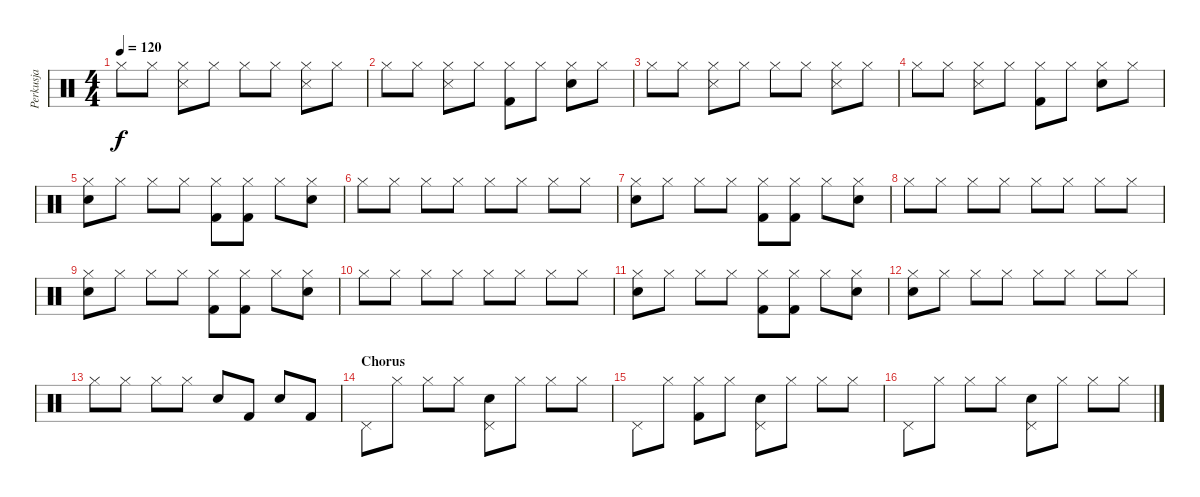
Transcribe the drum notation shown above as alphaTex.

\track ("Perkusja" "Perkusja") {instrument percussion}
\staff {score}
\articulation defaults
\ts (4 4)
\tempo 120
\clef neutral
\ks c "Hi-Hat (closed)".8{dy f} "Hi-Hat (closed)".8
("Hi-Hat (closed)" "Snare (side stick) 3").8 "Hi-Hat (closed)".8 "Hi-Hat (closed)".8 "Hi-Hat (closed)".8 ("Hi-Hat (closed)" "Snare (side stick) 3").8 "Hi-Hat (closed)".8 |
"Hi-Hat (closed)".8 "Hi-Hat (closed)".8 ("Hi-Hat (closed)" "Snare (side stick) 3").8 "Hi-Hat (closed)".8 ("Hi-Hat (closed)" "Kick (hit) 2").8 "Hi-Hat (closed)".8 ("Hi-Hat (closed)" "Snare (hit) 2").8 "Hi-Hat (closed)".8 |
"Hi-Hat (closed)".8 "Hi-Hat (closed)".8 ("Hi-Hat (closed)" "Snare (side stick) 3").8 "Hi-Hat (closed)".8 "Hi-Hat (closed)".8 "Hi-Hat (closed)".8 ("Hi-Hat (closed)" "Snare (side stick) 3").8 "Hi-Hat (closed)".8 |
"Hi-Hat (closed)".8 "Hi-Hat (closed)".8 ("Hi-Hat (closed)" "Snare (side stick) 3").8 "Hi-Hat (closed)".8 ("Hi-Hat (closed)" "Kick (hit) 2").8 "Hi-Hat (closed)".8 ("Hi-Hat (closed)" "Snare (hit) 2").8 "Hi-Hat (closed)".8 |
("Snare (hit) 2" "Hi-Hat (closed)").8 "Hi-Hat (closed)".8 "Hi-Hat (closed)".8 "Hi-Hat (closed)".8 ("Kick (hit) 2" "Hi-Hat (closed)").8 ("Kick (hit) 2" "Hi-Hat (closed)").8 "Hi-Hat (closed)".8 ("Snare (hit) 2" "Hi-Hat (closed)").8 |
"Hi-Hat (closed)".8 "Hi-Hat (closed)".8 "Hi-Hat (closed)".8 "Hi-Hat (closed)".8 "Hi-Hat (closed)".8 "Hi-Hat (closed)".8 "Hi-Hat (closed)".8 "Hi-Hat (closed)".8 |
("Snare (hit) 2" "Hi-Hat (closed)").8 "Hi-Hat (closed)".8 "Hi-Hat (closed)".8 "Hi-Hat (closed)".8 ("Kick (hit) 2" "Hi-Hat (closed)").8 ("Kick (hit) 2" "Hi-Hat (closed)").8 "Hi-Hat (closed)".8 ("Snare (hit) 2" "Hi-Hat (closed)").8 |
"Hi-Hat (closed)".8 "Hi-Hat (closed)".8 "Hi-Hat (closed)".8 "Hi-Hat (closed)".8 "Hi-Hat (closed)".8 "Hi-Hat (closed)".8 "Hi-Hat (closed)".8 "Hi-Hat (closed)".8 |
("Snare (hit) 2" "Hi-Hat (closed)").8 "Hi-Hat (closed)".8 "Hi-Hat (closed)".8 "Hi-Hat (closed)".8 ("Kick (hit) 2" "Hi-Hat (closed)").8 ("Kick (hit) 2" "Hi-Hat (closed)").8 "Hi-Hat (closed)".8 ("Snare (hit) 2" "Hi-Hat (closed)").8 |
"Hi-Hat (closed)".8 "Hi-Hat (closed)".8 "Hi-Hat (closed)".8 "Hi-Hat (closed)".8 "Hi-Hat (closed)".8 "Hi-Hat (closed)".8 "Hi-Hat (closed)".8 "Hi-Hat (closed)".8 |
("Snare (hit) 2" "Hi-Hat (closed)").8 "Hi-Hat (closed)".8 "Hi-Hat (closed)".8 "Hi-Hat (closed)".8 ("Kick (hit) 2" "Hi-Hat (closed)").8 ("Kick (hit) 2" "Hi-Hat (closed)").8 "Hi-Hat (closed)".8 ("Snare (hit) 2" "Hi-Hat (closed)").8 |
("Snare (hit) 2" "Hi-Hat (closed)").8 "Hi-Hat (closed)".8 "Hi-Hat (closed)".8 "Hi-Hat (closed)".8 "Hi-Hat (closed)".8 "Hi-Hat (closed)".8 "Hi-Hat (closed)".8 "Hi-Hat (closed)".8 |
"Hi-Hat (closed)".8 "Hi-Hat (closed)".8 "Hi-Hat (closed)".8 "Hi-Hat (closed)".8 "Snare (hit) 2".8 "Kick (hit) 2".8 "Snare (hit) 2".8 "Kick (hit) 2".8 |
\section ("" "Chorus")
"Pedal Hi-Hat (hit)".8 "Hi-Hat (closed)".8 "Hi-Hat (closed)".8 "Hi-Hat (closed)".8 ("Pedal Hi-Hat (hit)" "Snare (hit) 2").8 "Hi-Hat (closed)".8 "Hi-Hat (closed)".8 "Hi-Hat (closed)".8 |
"Pedal Hi-Hat (hit)".8 "Hi-Hat (closed)".8 ("Hi-Hat (closed)" "Kick (hit) 2").8 "Hi-Hat (closed)".8 ("Pedal Hi-Hat (hit)" "Snare (hit) 2").8 "Hi-Hat (closed)".8 "Hi-Hat (closed)".8 "Hi-Hat (closed)".8 |
"Pedal Hi-Hat (hit)".8 "Hi-Hat (closed)".8 "Hi-Hat (closed)".8 "Hi-Hat (closed)".8 ("Pedal Hi-Hat (hit)" "Snare (hit) 2").8 "Hi-Hat (closed)".8 "Hi-Hat (closed)".8 "Hi-Hat (closed)".8
